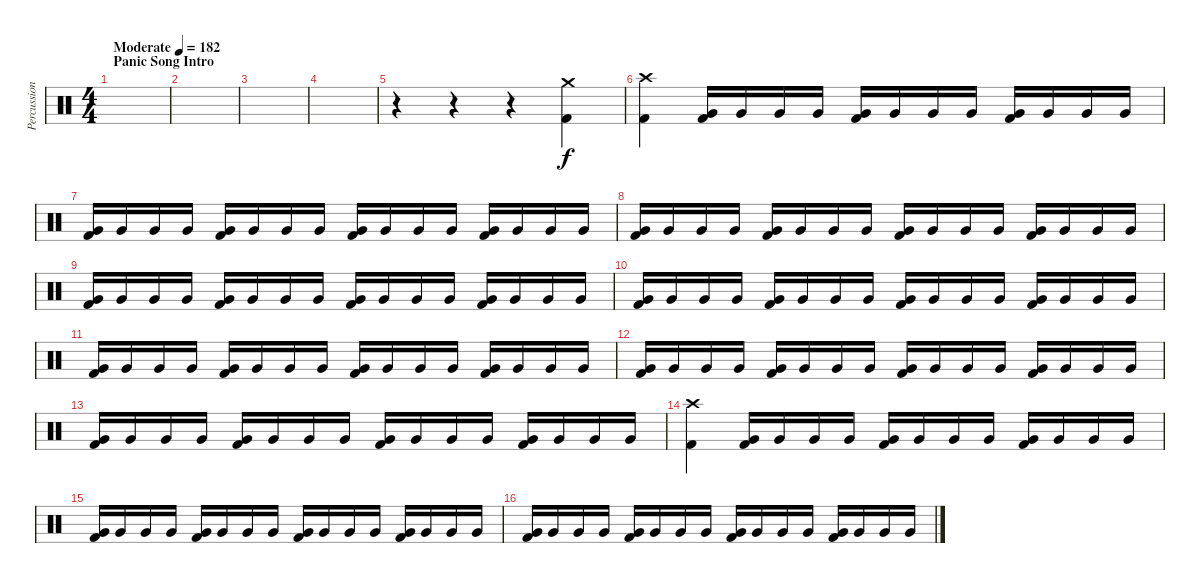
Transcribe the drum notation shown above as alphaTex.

\track ("Percussion" "Percussion") {instrument percussion}
\staff {score}
\articulation defaults
\ts (4 4)
\section ("" "Panic Song Intro")
\tempo (182 "Moderate")
\clef neutral
\ks c
|
|
|
|
r.4 r.4 r.4 ("Crash medium (hit)" "Kick (hit) 2").4 |
("Crash high (hit)" "Kick (hit) 2").4 ("Very Low Tom (hit)" "Kick (hit) 2").16 "Very Low Tom (hit)".16 "Very Low Tom (hit)".16 "Very Low Tom (hit)".16 ("Very Low Tom (hit)" "Kick (hit) 2").16 "Very Low Tom (hit)".16 "Very Low Tom (hit)".16 "Very Low Tom (hit)".16 ("Very Low Tom (hit)" "Kick (hit) 2").16 "Very Low Tom (hit)".16 "Very Low Tom (hit)".16 "Very Low Tom (hit)".16 |
("Very Low Tom (hit)" "Kick (hit) 2").16 "Very Low Tom (hit)".16 "Very Low Tom (hit)".16 "Very Low Tom (hit)".16 ("Very Low Tom (hit)" "Kick (hit) 2").16 "Very Low Tom (hit)".16 "Very Low Tom (hit)".16 "Very Low Tom (hit)".16 ("Very Low Tom (hit)" "Kick (hit) 2").16 "Very Low Tom (hit)".16 "Very Low Tom (hit)".16 "Very Low Tom (hit)".16 ("Very Low Tom (hit)" "Kick (hit) 2").16 "Very Low Tom (hit)".16 "Very Low Tom (hit)".16 "Very Low Tom (hit)".16 |
("Very Low Tom (hit)" "Kick (hit) 2").16 "Very Low Tom (hit)".16 "Very Low Tom (hit)".16 "Very Low Tom (hit)".16 ("Very Low Tom (hit)" "Kick (hit) 2").16 "Very Low Tom (hit)".16 "Very Low Tom (hit)".16 "Very Low Tom (hit)".16 ("Very Low Tom (hit)" "Kick (hit) 2").16 "Very Low Tom (hit)".16 "Very Low Tom (hit)".16 "Very Low Tom (hit)".16 ("Very Low Tom (hit)" "Kick (hit) 2").16 "Very Low Tom (hit)".16 "Very Low Tom (hit)".16 "Very Low Tom (hit)".16 |
("Very Low Tom (hit)" "Kick (hit) 2").16 "Very Low Tom (hit)".16 "Very Low Tom (hit)".16 "Very Low Tom (hit)".16 ("Very Low Tom (hit)" "Kick (hit) 2").16 "Very Low Tom (hit)".16 "Very Low Tom (hit)".16 "Very Low Tom (hit)".16 ("Very Low Tom (hit)" "Kick (hit) 2").16 "Very Low Tom (hit)".16 "Very Low Tom (hit)".16 "Very Low Tom (hit)".16 ("Very Low Tom (hit)" "Kick (hit) 2").16 "Very Low Tom (hit)".16 "Very Low Tom (hit)".16 "Very Low Tom (hit)".16 |
("Very Low Tom (hit)" "Kick (hit) 2").16 "Very Low Tom (hit)".16 "Very Low Tom (hit)".16 "Very Low Tom (hit)".16 ("Very Low Tom (hit)" "Kick (hit) 2").16 "Very Low Tom (hit)".16 "Very Low Tom (hit)".16 "Very Low Tom (hit)".16 ("Very Low Tom (hit)" "Kick (hit) 2").16 "Very Low Tom (hit)".16 "Very Low Tom (hit)".16 "Very Low Tom (hit)".16 ("Very Low Tom (hit)" "Kick (hit) 2").16 "Very Low Tom (hit)".16 "Very Low Tom (hit)".16 "Very Low Tom (hit)".16 |
("Very Low Tom (hit)" "Kick (hit) 2").16 "Very Low Tom (hit)".16 "Very Low Tom (hit)".16 "Very Low Tom (hit)".16 ("Very Low Tom (hit)" "Kick (hit) 2").16 "Very Low Tom (hit)".16 "Very Low Tom (hit)".16 "Very Low Tom (hit)".16 ("Very Low Tom (hit)" "Kick (hit) 2").16 "Very Low Tom (hit)".16 "Very Low Tom (hit)".16 "Very Low Tom (hit)".16 ("Very Low Tom (hit)" "Kick (hit) 2").16 "Very Low Tom (hit)".16 "Very Low Tom (hit)".16 "Very Low Tom (hit)".16 |
("Very Low Tom (hit)" "Kick (hit) 2").16 "Very Low Tom (hit)".16 "Very Low Tom (hit)".16 "Very Low Tom (hit)".16 ("Very Low Tom (hit)" "Kick (hit) 2").16 "Very Low Tom (hit)".16 "Very Low Tom (hit)".16 "Very Low Tom (hit)".16 ("Very Low Tom (hit)" "Kick (hit) 2").16 "Very Low Tom (hit)".16 "Very Low Tom (hit)".16 "Very Low Tom (hit)".16 ("Very Low Tom (hit)" "Kick (hit) 2").16 "Very Low Tom (hit)".16 "Very Low Tom (hit)".16 "Very Low Tom (hit)".16 |
("Very Low Tom (hit)" "Kick (hit) 2").16 "Very Low Tom (hit)".16 "Very Low Tom (hit)".16 "Very Low Tom (hit)".16 ("Very Low Tom (hit)" "Kick (hit) 2").16 "Very Low Tom (hit)".16 "Very Low Tom (hit)".16 "Very Low Tom (hit)".16 ("Very Low Tom (hit)" "Kick (hit) 2").16 "Very Low Tom (hit)".16 "Very Low Tom (hit)".16 "Very Low Tom (hit)".16 ("Very Low Tom (hit)" "Kick (hit) 2").16 "Very Low Tom (hit)".16 "Very Low Tom (hit)".16 "Very Low Tom (hit)".16 |
("Crash high (hit)" "Kick (hit) 2").4 ("Very Low Tom (hit)" "Kick (hit) 2").16 "Very Low Tom (hit)".16 "Very Low Tom (hit)".16 "Very Low Tom (hit)".16 ("Very Low Tom (hit)" "Kick (hit) 2").16 "Very Low Tom (hit)".16 "Very Low Tom (hit)".16 "Very Low Tom (hit)".16 ("Very Low Tom (hit)" "Kick (hit) 2").16 "Very Low Tom (hit)".16 "Very Low Tom (hit)".16 "Very Low Tom (hit)".16 |
("Very Low Tom (hit)" "Kick (hit) 2").16 "Very Low Tom (hit)".16 "Very Low Tom (hit)".16 "Very Low Tom (hit)".16 ("Very Low Tom (hit)" "Kick (hit) 2").16 "Very Low Tom (hit)".16 "Very Low Tom (hit)".16 "Very Low Tom (hit)".16 ("Very Low Tom (hit)" "Kick (hit) 2").16 "Very Low Tom (hit)".16 "Very Low Tom (hit)".16 "Very Low Tom (hit)".16 ("Very Low Tom (hit)" "Kick (hit) 2").16 "Very Low Tom (hit)".16 "Very Low Tom (hit)".16 "Very Low Tom (hit)".16 |
("Very Low Tom (hit)" "Kick (hit) 2").16 "Very Low Tom (hit)".16 "Very Low Tom (hit)".16 "Very Low Tom (hit)".16 ("Very Low Tom (hit)" "Kick (hit) 2").16 "Very Low Tom (hit)".16 "Very Low Tom (hit)".16 "Very Low Tom (hit)".16 ("Very Low Tom (hit)" "Kick (hit) 2").16 "Very Low Tom (hit)".16 "Very Low Tom (hit)".16 "Very Low Tom (hit)".16 ("Very Low Tom (hit)" "Kick (hit) 2").16 "Very Low Tom (hit)".16 "Very Low Tom (hit)".16 "Very Low Tom (hit)".16
